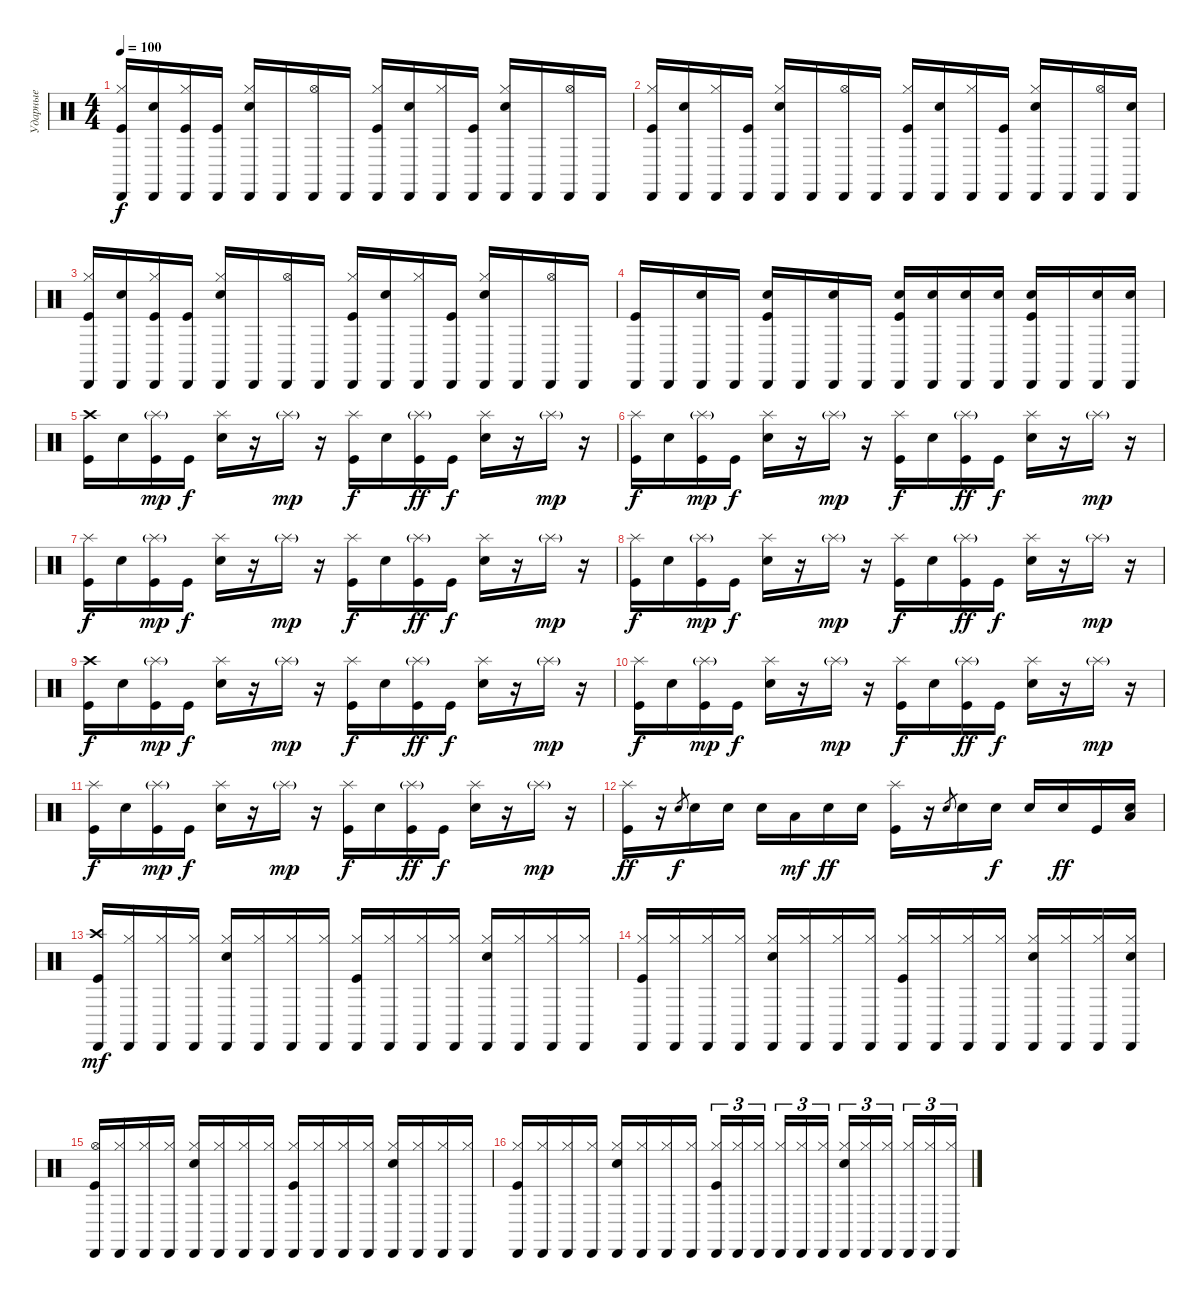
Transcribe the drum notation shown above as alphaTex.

\track ("Ударные" "Ударные") {instrument percussion}
\staff {score}
\articulation defaults
\ts (4 4)
\tempo 100
\clef neutral
\ks c
("Hi-Hat (closed)" "Kick (hit)" "Cabasa (hit)").16{dy f} ("Snare (hit) 2" "Cabasa (hit)").16 ("Hi-Hat (closed)" "Kick (hit)" "Cabasa (hit)").16 ("Kick (hit)" "Cabasa (hit)").16 ("Hi-Hat (closed)" "Snare (hit) 2" "Cabasa (hit)").16 "Cabasa (hit)".16 ("Hi-Hat (open)" "Cabasa (hit)").16 "Cabasa (hit)".16 ("Hi-Hat (closed)" "Kick (hit)" "Cabasa (hit)").16 ("Snare (hit) 2" "Cabasa (hit)").16 ("Hi-Hat (closed)" "Cabasa (hit)").16 ("Kick (hit)" "Cabasa (hit)").16 ("Hi-Hat (closed)" "Snare (hit) 2" "Cabasa (hit)").16 "Cabasa (hit)".16 ("Hi-Hat (open)" "Cabasa (hit)").16 "Cabasa (hit)".16 |
("Hi-Hat (closed)" "Kick (hit)" "Cabasa (hit)").16 ("Snare (hit) 2" "Cabasa (hit)").16 ("Hi-Hat (closed)" "Cabasa (hit)").16 ("Kick (hit)" "Cabasa (hit)").16 ("Hi-Hat (closed)" "Snare (hit) 2" "Cabasa (hit)").16 "Cabasa (hit)".16 ("Hi-Hat (open)" "Cabasa (hit)").16 "Cabasa (hit)".16 ("Hi-Hat (closed)" "Kick (hit)" "Cabasa (hit)").16 ("Snare (hit) 2" "Cabasa (hit)").16 ("Hi-Hat (closed)" "Cabasa (hit)").16 ("Kick (hit)" "Cabasa (hit)").16 ("Hi-Hat (closed)" "Snare (hit) 2" "Cabasa (hit)").16 "Cabasa (hit)".16 ("Hi-Hat (open)" "Cabasa (hit)").16 ("Snare (hit) 2" "Cabasa (hit)").16 |
("Hi-Hat (closed)" "Kick (hit)" "Cabasa (hit)").16 ("Snare (hit) 2" "Cabasa (hit)").16 ("Hi-Hat (closed)" "Kick (hit)" "Cabasa (hit)").16 ("Kick (hit)" "Cabasa (hit)").16 ("Hi-Hat (closed)" "Snare (hit) 2" "Cabasa (hit)").16 "Cabasa (hit)".16 ("Hi-Hat (open)" "Cabasa (hit)").16 "Cabasa (hit)".16 ("Hi-Hat (closed)" "Kick (hit)" "Cabasa (hit)").16 ("Snare (hit) 2" "Cabasa (hit)").16 ("Hi-Hat (closed)" "Cabasa (hit)").16 ("Kick (hit)" "Cabasa (hit)").16 ("Hi-Hat (closed)" "Snare (hit) 2" "Cabasa (hit)").16 "Cabasa (hit)".16 ("Hi-Hat (open)" "Cabasa (hit)").16 "Cabasa (hit)".16 |
("Kick (hit)" "Cabasa (hit)").16 "Cabasa (hit)".16 ("Snare (hit) 2" "Cabasa (hit)").16 "Cabasa (hit)".16 ("Kick (hit)" "Snare (hit) 2" "Cabasa (hit)").16 "Cabasa (hit)".16 ("Snare (hit) 2" "Cabasa (hit)").16 "Cabasa (hit)".16 ("Kick (hit)" "Snare (hit) 2" "Cabasa (hit)").16 ("Snare (hit) 2" "Cabasa (hit)").16 ("Snare (hit) 2" "Cabasa (hit)").16 ("Snare (hit) 2" "Cabasa (hit)").16 ("Kick (hit)" "Snare (hit) 2" "Cabasa (hit)").16 "Cabasa (hit)".16 ("Snare (hit) 2" "Cabasa (hit)").16 ("Snare (hit) 2" "Cabasa (hit)").16 |
("Crash high (hit)" "Kick (hit)").16 "Snare (hit) 2".16 ("Splash (hit)"{g} "Kick (hit)").16{dy mp} "Kick (hit)".16{dy f} ("Splash (hit)" "Snare (hit) 2").16 r.16 "Splash (hit)"{g}.16{dy mp} r.16 ("Splash (hit)" "Kick (hit)").16{dy f} "Snare (hit) 2".16 ("Splash (hit)"{g} "Kick (hit)").16{dy ff} "Kick (hit)".16{dy f} ("Splash (hit)" "Snare (hit) 2").16 r.16 "Splash (hit)"{g}.16{dy mp} r.16 |
("Splash (hit)" "Kick (hit)").16{dy f} "Snare (hit) 2".16 ("Splash (hit)"{g} "Kick (hit)").16{dy mp} "Kick (hit)".16{dy f} ("Splash (hit)" "Snare (hit) 2").16 r.16 "Splash (hit)"{g}.16{dy mp} r.16 ("Splash (hit)" "Kick (hit)").16{dy f} "Snare (hit) 2".16 ("Splash (hit)"{g} "Kick (hit)").16{dy ff} "Kick (hit)".16{dy f} ("Splash (hit)" "Snare (hit) 2").16 r.16 "Splash (hit)"{g}.16{dy mp} r.16 |
("Splash (hit)" "Kick (hit)").16{dy f} "Snare (hit) 2".16 ("Splash (hit)"{g} "Kick (hit)").16{dy mp} "Kick (hit)".16{dy f} ("Splash (hit)" "Snare (hit) 2").16 r.16 "Splash (hit)"{g}.16{dy mp} r.16 ("Splash (hit)" "Kick (hit)").16{dy f} "Snare (hit) 2".16 ("Splash (hit)"{g} "Kick (hit)").16{dy ff} "Kick (hit)".16{dy f} ("Splash (hit)" "Snare (hit) 2").16 r.16 "Splash (hit)"{g}.16{dy mp} r.16 |
("Splash (hit)" "Kick (hit)").16{dy f} "Snare (hit) 2".16 ("Splash (hit)"{g} "Kick (hit)").16{dy mp} "Kick (hit)".16{dy f} ("Splash (hit)" "Snare (hit) 2").16 r.16 "Splash (hit)"{g}.16{dy mp} r.16 ("Splash (hit)" "Kick (hit)").16{dy f} "Snare (hit) 2".16 ("Splash (hit)"{g} "Kick (hit)").16{dy ff} "Kick (hit)".16{dy f} ("Splash (hit)" "Snare (hit) 2").16 r.16 "Splash (hit)"{g}.16{dy mp} r.16 |
("Crash high (hit)" "Kick (hit)").16{dy f} "Snare (hit) 2".16 ("Splash (hit)"{g} "Kick (hit)").16{dy mp} "Kick (hit)".16{dy f} ("Splash (hit)" "Snare (hit) 2").16 r.16 "Splash (hit)"{g}.16{dy mp} r.16 ("Splash (hit)" "Kick (hit)").16{dy f} "Snare (hit) 2".16 ("Splash (hit)"{g} "Kick (hit)").16{dy ff} "Kick (hit)".16{dy f} ("Splash (hit)" "Snare (hit) 2").16 r.16 "Splash (hit)"{g}.16{dy mp} r.16 |
("Splash (hit)" "Kick (hit)").16{dy f} "Snare (hit) 2".16 ("Splash (hit)"{g} "Kick (hit)").16{dy mp} "Kick (hit)".16{dy f} ("Splash (hit)" "Snare (hit) 2").16 r.16 "Splash (hit)"{g}.16{dy mp} r.16 ("Splash (hit)" "Kick (hit)").16{dy f} "Snare (hit) 2".16 ("Splash (hit)"{g} "Kick (hit)").16{dy ff} "Kick (hit)".16{dy f} ("Splash (hit)" "Snare (hit) 2").16 r.16 "Splash (hit)"{g}.16{dy mp} r.16 |
("Splash (hit)" "Kick (hit)").16{dy f} "Snare (hit) 2".16 ("Splash (hit)"{g} "Kick (hit)").16{dy mp} "Kick (hit)".16{dy f} ("Splash (hit)" "Snare (hit) 2").16 r.16 "Splash (hit)"{g}.16{dy mp} r.16 ("Splash (hit)" "Kick (hit)").16{dy f} "Snare (hit) 2".16 ("Splash (hit)"{g} "Kick (hit)").16{dy ff} "Kick (hit)".16{dy f} ("Splash (hit)" "Snare (hit) 2").16 r.16 "Splash (hit)"{g}.16{dy mp} r.16 |
("Splash (hit)" "Kick (hit)").16{dy ff} r.16 "Snare (hit) 2".8{gr dy f} "Snare (hit) 2".16 "Snare (hit) 2".16 "Snare (hit) 2".16 "Low Tom (hit)".16{dy mf} "Snare (hit) 2".16{dy ff} "Snare (hit) 2".16 ("Splash (hit)" "Kick (hit)").16 r.16 "Snare (hit) 2".8{gr} "Snare (hit) 2".16 "Snare (hit) 2".16{dy f} "Snare (hit) 2".16 "Snare (hit) 2".16{dy ff} "Kick (hit)".16 ("Low Floor Tom (hit)" "Snare (hit) 2").16 |
("Kick (hit)" "Crash high (hit)" "Cabasa (hit)").16{dy mf} ("Hi-Hat (closed)" "Cabasa (hit)").16 ("Hi-Hat (closed)" "Cabasa (hit)").16 ("Hi-Hat (closed)" "Cabasa (hit)").16 ("Snare (hit) 2" "Hi-Hat (closed)" "Cabasa (hit)").16 ("Hi-Hat (closed)" "Cabasa (hit)").16 ("Hi-Hat (closed)" "Cabasa (hit)").16 ("Hi-Hat (closed)" "Cabasa (hit)").16 ("Kick (hit)" "Hi-Hat (closed)" "Cabasa (hit)").16 ("Hi-Hat (closed)" "Cabasa (hit)").16 ("Hi-Hat (closed)" "Cabasa (hit)").16 ("Hi-Hat (closed)" "Cabasa (hit)").16 ("Snare (hit) 2" "Hi-Hat (closed)" "Cabasa (hit)").16 ("Hi-Hat (closed)" "Cabasa (hit)").16 ("Hi-Hat (closed)" "Cabasa (hit)").16 ("Hi-Hat (closed)" "Cabasa (hit)").16 |
("Kick (hit)" "Hi-Hat (closed)" "Cabasa (hit)").16 ("Hi-Hat (closed)" "Cabasa (hit)").16 ("Hi-Hat (closed)" "Cabasa (hit)").16 ("Hi-Hat (closed)" "Cabasa (hit)").16 ("Snare (hit) 2" "Hi-Hat (closed)" "Cabasa (hit)").16 ("Hi-Hat (closed)" "Cabasa (hit)").16 ("Hi-Hat (closed)" "Cabasa (hit)").16 ("Hi-Hat (closed)" "Cabasa (hit)").16 ("Kick (hit)" "Hi-Hat (closed)" "Cabasa (hit)").16 ("Hi-Hat (closed)" "Cabasa (hit)").16 ("Hi-Hat (closed)" "Cabasa (hit)").16 ("Hi-Hat (closed)" "Cabasa (hit)").16 ("Snare (hit) 2" "Hi-Hat (closed)" "Cabasa (hit)").16 ("Hi-Hat (closed)" "Cabasa (hit)").16 ("Hi-Hat (closed)" "Cabasa (hit)").16 ("Snare (hit) 2" "Hi-Hat (closed)" "Cabasa (hit)").16 |
("Kick (hit)" "Hi-Hat (open)" "Cabasa (hit)").16 ("Hi-Hat (closed)" "Cabasa (hit)").16 ("Hi-Hat (closed)" "Cabasa (hit)").16 ("Hi-Hat (closed)" "Cabasa (hit)").16 ("Snare (hit) 2" "Hi-Hat (closed)" "Cabasa (hit)").16 ("Hi-Hat (closed)" "Cabasa (hit)").16 ("Hi-Hat (closed)" "Cabasa (hit)").16 ("Hi-Hat (closed)" "Cabasa (hit)").16 ("Kick (hit)" "Hi-Hat (closed)" "Cabasa (hit)").16 ("Hi-Hat (closed)" "Cabasa (hit)").16 ("Hi-Hat (closed)" "Cabasa (hit)").16 ("Hi-Hat (closed)" "Cabasa (hit)").16 ("Snare (hit) 2" "Hi-Hat (closed)" "Cabasa (hit)").16 ("Hi-Hat (closed)" "Cabasa (hit)").16 ("Hi-Hat (closed)" "Cabasa (hit)").16 ("Hi-Hat (closed)" "Cabasa (hit)").16 |
("Kick (hit)" "Hi-Hat (closed)" "Cabasa (hit)").16 ("Hi-Hat (closed)" "Cabasa (hit)").16 ("Hi-Hat (closed)" "Cabasa (hit)").16 ("Hi-Hat (closed)" "Cabasa (hit)").16 ("Snare (hit) 2" "Hi-Hat (closed)" "Cabasa (hit)").16 ("Hi-Hat (closed)" "Cabasa (hit)").16 ("Hi-Hat (closed)" "Cabasa (hit)").16 ("Hi-Hat (closed)" "Cabasa (hit)").16 ("Kick (hit)" "Hi-Hat (closed)" "Cabasa (hit)").16{tu (3 2)} ("Hi-Hat (closed)" "Cabasa (hit)").16{tu (3 2)} ("Hi-Hat (closed)" "Cabasa (hit)").16{tu (3 2) beam splitsecondary} ("Hi-Hat (closed)" "Cabasa (hit)").16{tu (3 2)} ("Hi-Hat (closed)" "Cabasa (hit)").16{tu (3 2)} ("Hi-Hat (closed)" "Cabasa (hit)").16{tu (3 2)} ("Snare (hit) 2" "Hi-Hat (closed)" "Cabasa (hit)").16{tu (3 2)} ("Hi-Hat (closed)" "Cabasa (hit)").16{tu (3 2)} ("Hi-Hat (closed)" "Cabasa (hit)").16{tu (3 2) beam splitsecondary} ("Hi-Hat (closed)" "Cabasa (hit)").16{tu (3 2)} ("Hi-Hat (closed)" "Cabasa (hit)").16{tu (3 2)} ("Hi-Hat (closed)" "Cabasa (hit)").16{tu (3 2)}
